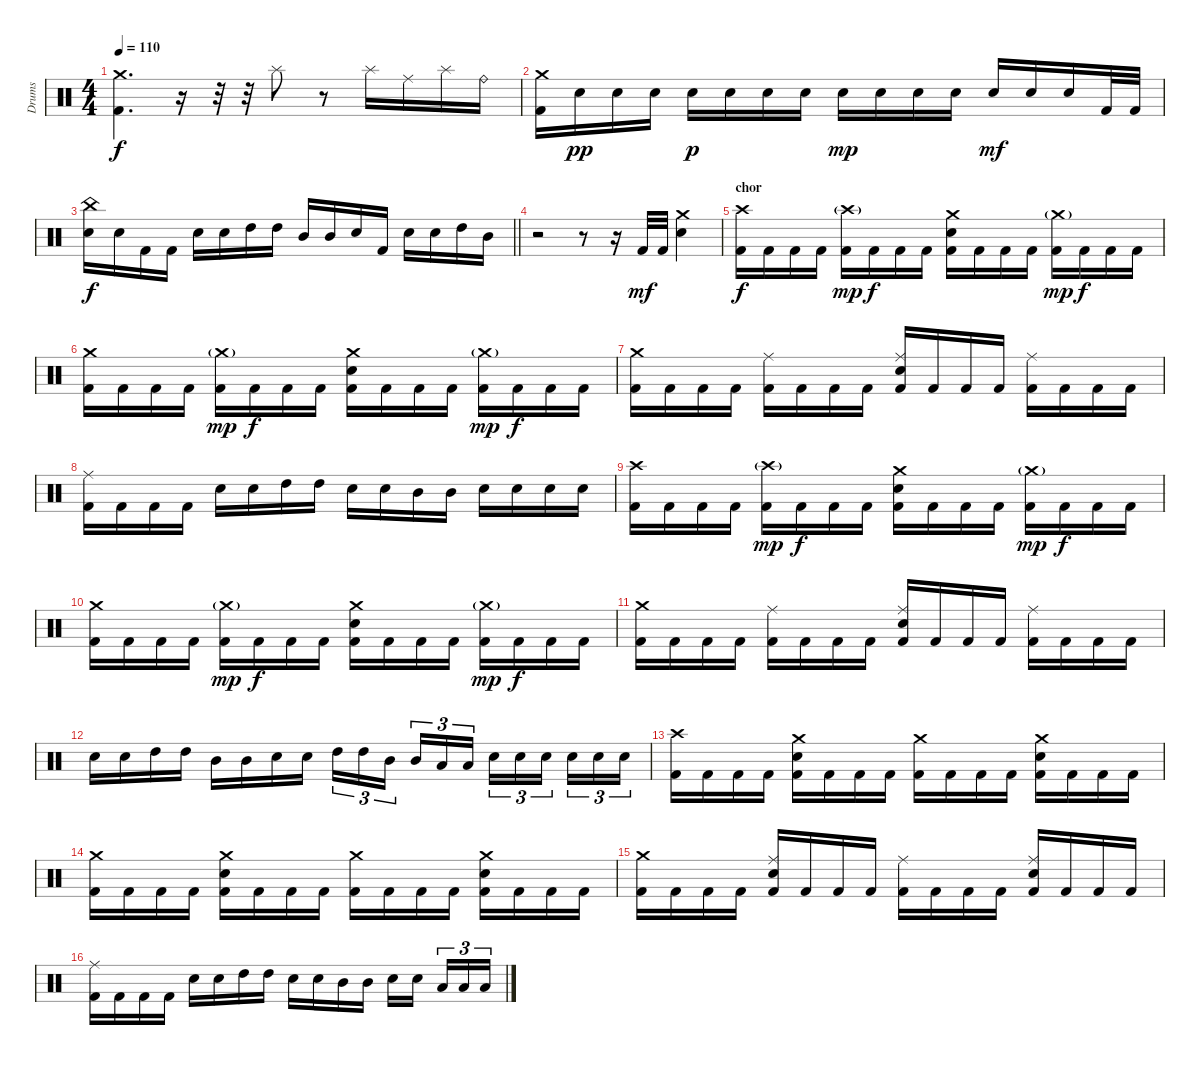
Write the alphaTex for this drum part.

\track ("Drums" "Drums") {instrument percussion}
\staff {score}
\articulation defaults
\ts (4 4)
\tempo 110
\clef neutral
\ks c
("Crash medium (hit)" "Kick (hit) 2").4{d dy f} r.16 r.32 r.32 "Splash (hit)".8 r.8 "Splash (hit)".16 "Ride (middle)".16 "Splash (hit)".16 "Ride (bell)".16 |
("Crash medium (hit)" "Kick (hit) 2").16 "Electric Snare (hit)".16{dy pp} "Electric Snare (hit)".16 "Electric Snare (hit)".16 "Electric Snare (hit)".16{dy p} "Electric Snare (hit)".16 "Electric Snare (hit)".16 "Electric Snare (hit)".16 "Electric Snare (hit)".16{dy mp} "Electric Snare (hit)".16 "Electric Snare (hit)".16 "Electric Snare (hit)".16 "Electric Snare (hit)".16{dy mf} "Electric Snare (hit)".16 "Electric Snare (hit)".16 "Kick (hit) 2".32 "Kick (hit) 2".32 |
\barLineRight lightlight
("China (hit)" "Electric Snare (hit)").16{dy f} "Electric Snare (hit)".16 "Kick (hit) 2".16 "Kick (hit) 2".16 "Electric Snare (hit)".16 "Electric Snare (hit)".16 "High Tom (hit)".16 "High Tom (hit)".16 "Mid Tom (hit)".16 "Mid Tom (hit)".16 "Electric Snare (hit)".16 "Kick (hit) 2".16 "Electric Snare (hit)".16 "Electric Snare (hit)".16 "High Tom (hit)".16 "Mid Tom (hit)".16 |
r.2 r.8 r.16 "Kick (hit) 2".32{dy mf} "Kick (hit) 2".32 ("Electric Snare (hit)" "Crash medium (hit)").4 |
\section ("" "chor")
("Crash high (hit)" "Kick (hit) 2").16{dy f} "Kick (hit) 2".16 "Kick (hit) 2".16 "Kick (hit) 2".16 ("Crash high (hit)"{g} "Kick (hit) 2").16{dy mp} "Kick (hit) 2".16{dy f} "Kick (hit) 2".16 "Kick (hit) 2".16 ("Crash medium (hit)" "Electric Snare (hit)" "Kick (hit) 2").16 "Kick (hit) 2".16 "Kick (hit) 2".16 "Kick (hit) 2".16 ("Crash medium (hit)"{g} "Kick (hit) 2").16{dy mp} "Kick (hit) 2".16{dy f} "Kick (hit) 2".16 "Kick (hit) 2".16 |
("Crash medium (hit)" "Kick (hit) 2").16 "Kick (hit) 2".16 "Kick (hit) 2".16 "Kick (hit) 2".16 ("Crash medium (hit)"{g} "Kick (hit) 2").16{dy mp} "Kick (hit) 2".16{dy f} "Kick (hit) 2".16 "Kick (hit) 2".16 ("Crash medium (hit)" "Electric Snare (hit)" "Kick (hit) 2").16 "Kick (hit) 2".16 "Kick (hit) 2".16 "Kick (hit) 2".16 ("Crash medium (hit)"{g} "Kick (hit) 2").16{dy mp} "Kick (hit) 2".16{dy f} "Kick (hit) 2".16 "Kick (hit) 2".16 |
("Crash medium (hit)" "Kick (hit) 2").16 "Kick (hit) 2".16 "Kick (hit) 2".16 "Kick (hit) 2".16 ("Ride (middle)" "Kick (hit) 2").16 "Kick (hit) 2".16 "Kick (hit) 2".16 "Kick (hit) 2".16 ("Ride (middle)" "Electric Snare (hit)" "Kick (hit) 2").16 "Kick (hit) 2".16 "Kick (hit) 2".16 "Kick (hit) 2".16 ("Ride (middle)" "Kick (hit) 2").16 "Kick (hit) 2".16 "Kick (hit) 2".16 "Kick (hit) 2".16 |
("Ride (middle)" "Kick (hit) 2").16 "Kick (hit) 2".16 "Kick (hit) 2".16 "Kick (hit) 2".16 "Electric Snare (hit)".16 "Electric Snare (hit)".16 "High Tom (hit)".16 "High Tom (hit)".16 "Electric Snare (hit)".16 "Electric Snare (hit)".16 "Mid Tom (hit)".16 "Mid Tom (hit)".16 "Electric Snare (hit)".16 "Electric Snare (hit)".16 "Electric Snare (hit)".16 "Electric Snare (hit)".16 |
("Crash high (hit)" "Kick (hit) 2").16 "Kick (hit) 2".16 "Kick (hit) 2".16 "Kick (hit) 2".16 ("Crash high (hit)"{g} "Kick (hit) 2").16{dy mp} "Kick (hit) 2".16{dy f} "Kick (hit) 2".16 "Kick (hit) 2".16 ("Crash medium (hit)" "Electric Snare (hit)" "Kick (hit) 2").16 "Kick (hit) 2".16 "Kick (hit) 2".16 "Kick (hit) 2".16 ("Crash medium (hit)"{g} "Kick (hit) 2").16{dy mp} "Kick (hit) 2".16{dy f} "Kick (hit) 2".16 "Kick (hit) 2".16 |
("Crash medium (hit)" "Kick (hit) 2").16 "Kick (hit) 2".16 "Kick (hit) 2".16 "Kick (hit) 2".16 ("Crash medium (hit)"{g} "Kick (hit) 2").16{dy mp} "Kick (hit) 2".16{dy f} "Kick (hit) 2".16 "Kick (hit) 2".16 ("Crash medium (hit)" "Electric Snare (hit)" "Kick (hit) 2").16 "Kick (hit) 2".16 "Kick (hit) 2".16 "Kick (hit) 2".16 ("Crash medium (hit)"{g} "Kick (hit) 2").16{dy mp} "Kick (hit) 2".16{dy f} "Kick (hit) 2".16 "Kick (hit) 2".16 |
("Crash medium (hit)" "Kick (hit) 2").16 "Kick (hit) 2".16 "Kick (hit) 2".16 "Kick (hit) 2".16 ("Ride (middle)" "Kick (hit) 2").16 "Kick (hit) 2".16 "Kick (hit) 2".16 "Kick (hit) 2".16 ("Ride (middle)" "Electric Snare (hit)" "Kick (hit) 2").16 "Kick (hit) 2".16 "Kick (hit) 2".16 "Kick (hit) 2".16 ("Ride (middle)" "Kick (hit) 2").16 "Kick (hit) 2".16 "Kick (hit) 2".16 "Kick (hit) 2".16 |
"Electric Snare (hit)".16 "Electric Snare (hit)".16 "High Tom (hit)".16 "High Tom (hit)".16 "Mid Tom (hit)".16 "Mid Tom (hit)".16 "Electric Snare (hit)".16 "Electric Snare (hit)".16 "High Tom (hit)".16{tu (3 2)} "High Tom (hit)".16{tu (3 2)} "Mid Tom (hit)".16{tu (3 2) beam splitsecondary} "Mid Tom (hit)".16{tu (3 2)} "Low Tom (hit)".16{tu (3 2)} "Low Tom (hit)".16{tu (3 2)} "Electric Snare (hit)".16{tu (3 2)} "Electric Snare (hit)".16{tu (3 2)} "Electric Snare (hit)".16{tu (3 2) beam splitsecondary} "Electric Snare (hit)".16{tu (3 2)} "Electric Snare (hit)".16{tu (3 2)} "Electric Snare (hit)".16{tu (3 2)} |
("Crash high (hit)" "Kick (hit) 2").16 "Kick (hit) 2".16 "Kick (hit) 2".16 "Kick (hit) 2".16 ("Crash medium (hit)" "Electric Snare (hit)" "Kick (hit) 2").16 "Kick (hit) 2".16 "Kick (hit) 2".16 "Kick (hit) 2".16 ("Crash medium (hit)" "Kick (hit) 2").16 "Kick (hit) 2".16 "Kick (hit) 2".16 "Kick (hit) 2".16 ("Crash medium (hit)" "Electric Snare (hit)" "Kick (hit) 2").16 "Kick (hit) 2".16 "Kick (hit) 2".16 "Kick (hit) 2".16 |
("Crash medium (hit)" "Kick (hit) 2").16 "Kick (hit) 2".16 "Kick (hit) 2".16 "Kick (hit) 2".16 ("Crash medium (hit)" "Electric Snare (hit)" "Kick (hit) 2").16 "Kick (hit) 2".16 "Kick (hit) 2".16 "Kick (hit) 2".16 ("Crash medium (hit)" "Kick (hit) 2").16 "Kick (hit) 2".16 "Kick (hit) 2".16 "Kick (hit) 2".16 ("Crash medium (hit)" "Electric Snare (hit)" "Kick (hit) 2").16 "Kick (hit) 2".16 "Kick (hit) 2".16 "Kick (hit) 2".16 |
("Crash medium (hit)" "Kick (hit) 2").16 "Kick (hit) 2".16 "Kick (hit) 2".16 "Kick (hit) 2".16 ("Ride (middle)" "Electric Snare (hit)" "Kick (hit) 2").16 "Kick (hit) 2".16 "Kick (hit) 2".16 "Kick (hit) 2".16 ("Ride (middle)" "Kick (hit) 2").16 "Kick (hit) 2".16 "Kick (hit) 2".16 "Kick (hit) 2".16 ("Ride (middle)" "Electric Snare (hit)" "Kick (hit) 2").16 "Kick (hit) 2".16 "Kick (hit) 2".16 "Kick (hit) 2".16 |
("Ride (middle)" "Kick (hit) 2").16 "Kick (hit) 2".16 "Kick (hit) 2".16 "Kick (hit) 2".16 "Electric Snare (hit)".16 "Electric Snare (hit)".16 "High Tom (hit)".16 "High Tom (hit)".16 "Electric Snare (hit)".16 "Electric Snare (hit)".16 "Mid Tom (hit)".16 "Mid Tom (hit)".16 "Electric Snare (hit)".16 "Electric Snare (hit)".16{beam splitsecondary} "Low Tom (hit)".16{tu (3 2)} "Low Tom (hit)".16{tu (3 2)} "Low Tom (hit)".16{tu (3 2)}
